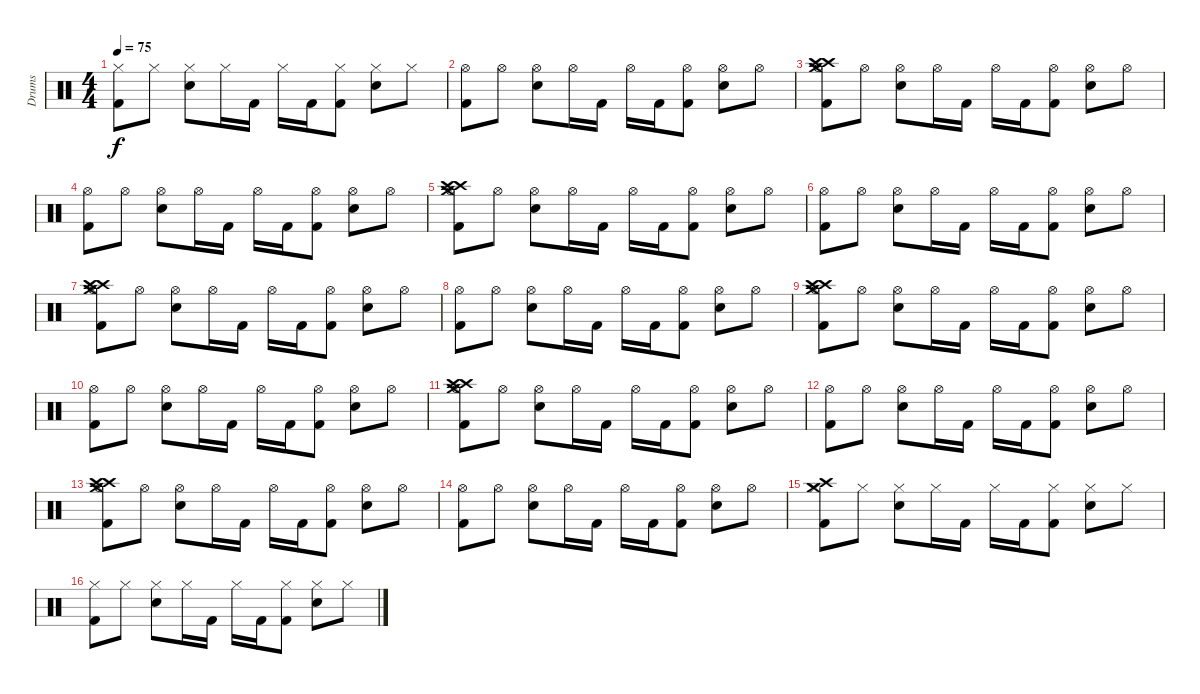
\track ("Drums" "Drums") {instrument percussion}
\staff {score}
\articulation defaults
\ts (4 4)
\tempo 75
\clef neutral
\ks c
("Hi-Hat (closed)" "Kick (hit) 2").8{dy f} "Hi-Hat (closed)".8 ("Hi-Hat (closed)" "Electric Snare (hit)").8 "Hi-Hat (closed)".16 "Kick (hit) 2".16 "Hi-Hat (closed)".16 "Kick (hit) 2".16 ("Hi-Hat (closed)" "Kick (hit) 2").8 ("Hi-Hat (closed)" "Electric Snare (hit)").8 "Hi-Hat (closed)".8 |
("Hi-Hat (open)" "Kick (hit) 2").8 "Hi-Hat (open)".8 ("Hi-Hat (open)" "Electric Snare (hit)").8 "Hi-Hat (open)".16 "Kick (hit) 2".16 "Hi-Hat (open)".16 "Kick (hit) 2".16 ("Hi-Hat (open)" "Kick (hit) 2").8 ("Hi-Hat (open)" "Electric Snare (hit)").8 "Hi-Hat (open)".8 |
("Crash high (hit)" "Crash medium (hit)" "Crash high (hit)" "Hi-Hat (open)" "Kick (hit) 2").8 "Hi-Hat (open)".8 ("Hi-Hat (open)" "Electric Snare (hit)").8 "Hi-Hat (open)".16 "Kick (hit) 2".16 "Hi-Hat (open)".16 "Kick (hit) 2".16 ("Hi-Hat (open)" "Kick (hit) 2").8 ("Hi-Hat (open)" "Electric Snare (hit)").8 "Hi-Hat (open)".8 |
("Hi-Hat (open)" "Kick (hit) 2").8 "Hi-Hat (open)".8 ("Hi-Hat (open)" "Electric Snare (hit)").8 "Hi-Hat (open)".16 "Kick (hit) 2".16 "Hi-Hat (open)".16 "Kick (hit) 2".16 ("Hi-Hat (open)" "Kick (hit) 2").8 ("Hi-Hat (open)" "Electric Snare (hit)").8 "Hi-Hat (open)".8 |
("Crash high (hit)" "Crash medium (hit)" "Crash high (hit)" "Hi-Hat (open)" "Kick (hit) 2").8 "Hi-Hat (open)".8 ("Hi-Hat (open)" "Electric Snare (hit)").8 "Hi-Hat (open)".16 "Kick (hit) 2".16 "Hi-Hat (open)".16 "Kick (hit) 2".16 ("Hi-Hat (open)" "Kick (hit) 2").8 ("Hi-Hat (open)" "Electric Snare (hit)").8 "Hi-Hat (open)".8 |
("Hi-Hat (open)" "Kick (hit) 2").8 "Hi-Hat (open)".8 ("Hi-Hat (open)" "Electric Snare (hit)").8 "Hi-Hat (open)".16 "Kick (hit) 2".16 "Hi-Hat (open)".16 "Kick (hit) 2".16 ("Hi-Hat (open)" "Kick (hit) 2").8 ("Hi-Hat (open)" "Electric Snare (hit)").8 "Hi-Hat (open)".8 |
("Crash high (hit)" "Crash medium (hit)" "Crash high (hit)" "Hi-Hat (open)" "Kick (hit) 2").8 "Hi-Hat (open)".8 ("Hi-Hat (open)" "Electric Snare (hit)").8 "Hi-Hat (open)".16 "Kick (hit) 2".16 "Hi-Hat (open)".16 "Kick (hit) 2".16 ("Hi-Hat (open)" "Kick (hit) 2").8 ("Hi-Hat (open)" "Electric Snare (hit)").8 "Hi-Hat (open)".8 |
("Hi-Hat (open)" "Kick (hit) 2").8 "Hi-Hat (open)".8 ("Hi-Hat (open)" "Electric Snare (hit)").8 "Hi-Hat (open)".16 "Kick (hit) 2".16 "Hi-Hat (open)".16 "Kick (hit) 2".16 ("Hi-Hat (open)" "Kick (hit) 2").8 ("Hi-Hat (open)" "Electric Snare (hit)").8 "Hi-Hat (open)".8 |
("Crash high (hit)" "Crash medium (hit)" "Crash high (hit)" "Hi-Hat (open)" "Kick (hit) 2").8 "Hi-Hat (open)".8 ("Hi-Hat (open)" "Electric Snare (hit)").8 "Hi-Hat (open)".16 "Kick (hit) 2".16 "Hi-Hat (open)".16 "Kick (hit) 2".16 ("Hi-Hat (open)" "Kick (hit) 2").8 ("Hi-Hat (open)" "Electric Snare (hit)").8 "Hi-Hat (open)".8 |
("Hi-Hat (open)" "Kick (hit) 2").8 "Hi-Hat (open)".8 ("Hi-Hat (open)" "Electric Snare (hit)").8 "Hi-Hat (open)".16 "Kick (hit) 2".16 "Hi-Hat (open)".16 "Kick (hit) 2".16 ("Hi-Hat (open)" "Kick (hit) 2").8 ("Hi-Hat (open)" "Electric Snare (hit)").8 "Hi-Hat (open)".8 |
("Crash high (hit)" "Crash medium (hit)" "Crash high (hit)" "Hi-Hat (open)" "Kick (hit) 2").8 "Hi-Hat (open)".8 ("Hi-Hat (open)" "Electric Snare (hit)").8 "Hi-Hat (open)".16 "Kick (hit) 2".16 "Hi-Hat (open)".16 "Kick (hit) 2".16 ("Hi-Hat (open)" "Kick (hit) 2").8 ("Hi-Hat (open)" "Electric Snare (hit)").8 "Hi-Hat (open)".8 |
("Hi-Hat (open)" "Kick (hit) 2").8 "Hi-Hat (open)".8 ("Hi-Hat (open)" "Electric Snare (hit)").8 "Hi-Hat (open)".16 "Kick (hit) 2".16 "Hi-Hat (open)".16 "Kick (hit) 2".16 ("Hi-Hat (open)" "Kick (hit) 2").8 ("Hi-Hat (open)" "Electric Snare (hit)").8 "Hi-Hat (open)".8 |
("Crash high (hit)" "Crash medium (hit)" "Crash high (hit)" "Hi-Hat (open)" "Kick (hit) 2").8 "Hi-Hat (open)".8 ("Hi-Hat (open)" "Electric Snare (hit)").8 "Hi-Hat (open)".16 "Kick (hit) 2".16 "Hi-Hat (open)".16 "Kick (hit) 2".16 ("Hi-Hat (open)" "Kick (hit) 2").8 ("Hi-Hat (open)" "Electric Snare (hit)").8 "Hi-Hat (open)".8 |
("Hi-Hat (open)" "Kick (hit) 2").8 "Hi-Hat (open)".8 ("Hi-Hat (open)" "Electric Snare (hit)").8 "Hi-Hat (open)".16 "Kick (hit) 2".16 "Hi-Hat (open)".16 "Kick (hit) 2".16 ("Hi-Hat (open)" "Kick (hit) 2").8 ("Hi-Hat (open)" "Electric Snare (hit)").8 "Hi-Hat (open)".8 |
("Hi-Hat (closed)" "Crash high (hit)" "Crash medium (hit)" "Kick (hit) 2").8 "Hi-Hat (closed)".8 ("Hi-Hat (closed)" "Electric Snare (hit)").8 "Hi-Hat (closed)".16 "Kick (hit) 2".16 "Hi-Hat (closed)".16 "Kick (hit) 2".16 ("Hi-Hat (closed)" "Kick (hit) 2").8 ("Hi-Hat (closed)" "Electric Snare (hit)").8 "Hi-Hat (closed)".8 |
("Hi-Hat (closed)" "Kick (hit) 2").8 "Hi-Hat (closed)".8 ("Hi-Hat (closed)" "Electric Snare (hit)").8 "Hi-Hat (closed)".16 "Kick (hit) 2".16 "Hi-Hat (closed)".16 "Kick (hit) 2".16 ("Hi-Hat (closed)" "Kick (hit) 2").8 ("Hi-Hat (closed)" "Electric Snare (hit)").8 "Hi-Hat (closed)".8
